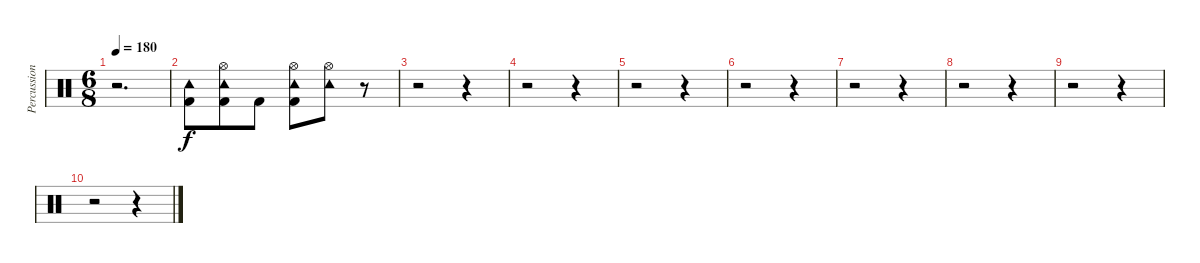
\track ("Percussion" "Percussion") {instrument percussion}
\staff {score}
\articulation defaults
\ts (6 8)
\tempo 180
\clef neutral
\ks c
r.2{d dy f} |
("Kick (hit) 2" "Tambourine (hit)").8 ("Kick (hit) 2" "Hi-Hat (open)" "Tambourine (hit)").8 "Kick (hit) 2".8 ("Kick (hit) 2" "Hi-Hat (open)" "Tambourine (hit)").8 ("Hi-Hat (open)" "Tambourine (hit)").8 r.8 |
r.2 r.4 |
r.2 r.4 |
r.2 r.4 |
r.2 r.4 |
r.2 r.4 |
r.2 r.4 |
r.2 r.4 |
r.2 r.4
